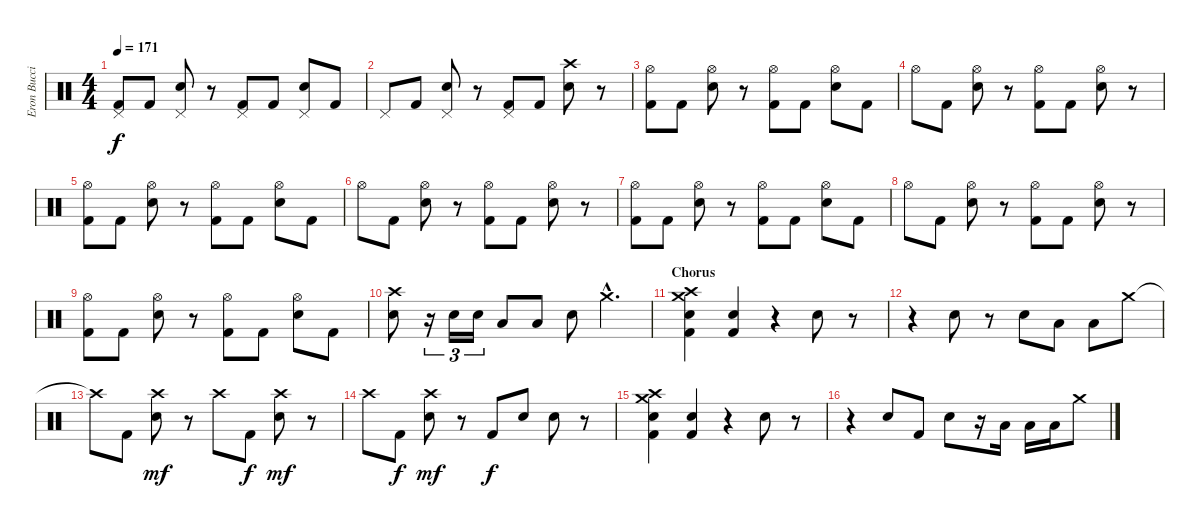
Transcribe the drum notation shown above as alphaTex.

\track ("Eron Bucciarelli (Drums)" "Eron Bucci") {instrument percussion}
\staff {score}
\articulation defaults
\ts (4 4)
\tempo 171
\clef neutral
\ks c
("Pedal Hi-Hat (hit)" "Kick (hit) 2").8{dy f} "Kick (hit) 2".8 ("Pedal Hi-Hat (hit)" "Snare (hit) 2").8 r.8 ("Pedal Hi-Hat (hit)" "Kick (hit) 2").8 "Kick (hit) 2".8 ("Pedal Hi-Hat (hit)" "Snare (hit) 2").8 "Kick (hit) 2".8 |
"Pedal Hi-Hat (hit)".8 "Kick (hit) 2".8 ("Pedal Hi-Hat (hit)" "Snare (hit) 2").8 r.8 ("Pedal Hi-Hat (hit)" "Kick (hit) 2").8 "Kick (hit) 2".8 ("Crash high (hit)" "Snare (hit) 2").8 r.8 |
("Hi-Hat (open)" "Kick (hit) 2").8 "Kick (hit) 2".8 ("Hi-Hat (open)" "Snare (hit) 2").8 r.8 ("Hi-Hat (open)" "Kick (hit) 2").8 "Kick (hit) 2".8 ("Hi-Hat (open)" "Snare (hit) 2").8 "Kick (hit) 2".8 |
"Hi-Hat (open)".8 "Kick (hit) 2".8 ("Hi-Hat (open)" "Snare (hit) 2").8 r.8 ("Hi-Hat (open)" "Kick (hit) 2").8 "Kick (hit) 2".8 ("Hi-Hat (open)" "Snare (hit) 2").8 r.8 |
("Hi-Hat (open)" "Kick (hit) 2").8 "Kick (hit) 2".8 ("Hi-Hat (open)" "Snare (hit) 2").8 r.8 ("Hi-Hat (open)" "Kick (hit) 2").8 "Kick (hit) 2".8 ("Hi-Hat (open)" "Snare (hit) 2").8 "Kick (hit) 2".8 |
"Hi-Hat (open)".8 "Kick (hit) 2".8 ("Hi-Hat (open)" "Snare (hit) 2").8 r.8 ("Hi-Hat (open)" "Kick (hit) 2").8 "Kick (hit) 2".8 ("Hi-Hat (open)" "Snare (hit) 2").8 r.8 |
("Hi-Hat (open)" "Kick (hit) 2").8 "Kick (hit) 2".8 ("Hi-Hat (open)" "Snare (hit) 2").8 r.8 ("Hi-Hat (open)" "Kick (hit) 2").8 "Kick (hit) 2".8 ("Hi-Hat (open)" "Snare (hit) 2").8 "Kick (hit) 2".8 |
"Hi-Hat (open)".8 "Kick (hit) 2".8 ("Hi-Hat (open)" "Snare (hit) 2").8 r.8 ("Hi-Hat (open)" "Kick (hit) 2").8 "Kick (hit) 2".8 ("Hi-Hat (open)" "Snare (hit) 2").8 r.8 |
("Hi-Hat (open)" "Kick (hit) 2").8 "Kick (hit) 2".8 ("Hi-Hat (open)" "Snare (hit) 2").8 r.8 ("Hi-Hat (open)" "Kick (hit) 2").8 "Kick (hit) 2".8 ("Hi-Hat (open)" "Snare (hit) 2").8 "Kick (hit) 2".8 |
("Crash high (hit)" "Snare (hit) 2").8 r.16{tu (3 2)} "Snare (hit) 2".16{tu (3 2)} "Snare (hit) 2".16{tu (3 2)} "Low Tom (hit)".8 "Low Floor Tom (hit)".8 "Snare (hit) 2".8 "Crash medium (hit)"{hac}.4{d} |
\section ("" "Chorus")
("Crash high (hit)" "Crash medium (hit)" "Snare (hit) 2" "Kick (hit) 2").4 ("Snare (hit) 2" "Kick (hit) 2").4 r.4 "Snare (hit) 2".8 r.8 |
r.4 "Snare (hit) 2".8 r.8 "Snare (hit) 2".8 "Low Tom (hit)".8 "Low Floor Tom (hit)".8 "Crash medium (hit)".8 |
"Crash high (hit)"{t}.8 "Kick (hit) 2".8 ("Crash high (hit)" "Snare (hit) 2").8{dy mf} r.8 "Crash high (hit)".8 "Kick (hit) 2".8{dy f} ("Crash high (hit)" "Snare (hit) 2").8{dy mf} r.8 |
"Crash high (hit)".8 "Kick (hit) 2".8{dy f} ("Crash high (hit)" "Snare (hit) 2").8{dy mf} r.8 "Kick (hit) 2".8{dy f} "Snare (hit) 2".8 "Snare (hit) 2".8 r.8 |
("Crash medium (hit)" "Crash high (hit)" "Snare (hit) 2" "Kick (hit) 2").4 ("Snare (hit) 2" "Kick (hit) 2").4 r.4 "Snare (hit) 2".8 r.8 |
r.4 "Snare (hit) 2".8 "Kick (hit) 2".8 "Snare (hit) 2".8 r.16 "Low Tom (hit)".16 "Low Tom (hit)".16 "Low Floor Tom (hit)".16 "Crash medium (hit)".8
